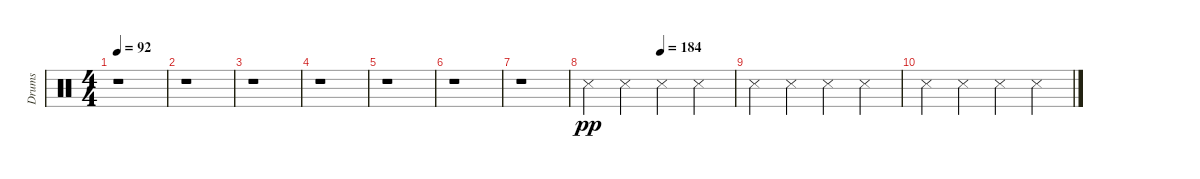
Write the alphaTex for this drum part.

\track ("Drums" "Drums") {instrument percussion}
\staff {score}
\articulation defaults
\ts (4 4)
\tempo 92
\clef neutral
\ks c
r.1{dy pp} |
r.1 |
r.1 |
r.1 |
r.1 |
r.1 |
r.1 |
\tempo (184 0.5)
"Snare (side stick) 3".4 "Snare (side stick) 3".4 "Snare (side stick) 3".4 "Snare (side stick) 3".4 |
"Snare (side stick) 3".4 "Snare (side stick) 3".4 "Snare (side stick) 3".4 "Snare (side stick) 3".4 |
"Snare (side stick) 3".4 "Snare (side stick) 3".4 "Snare (side stick) 3".4 "Snare (side stick) 3".4
